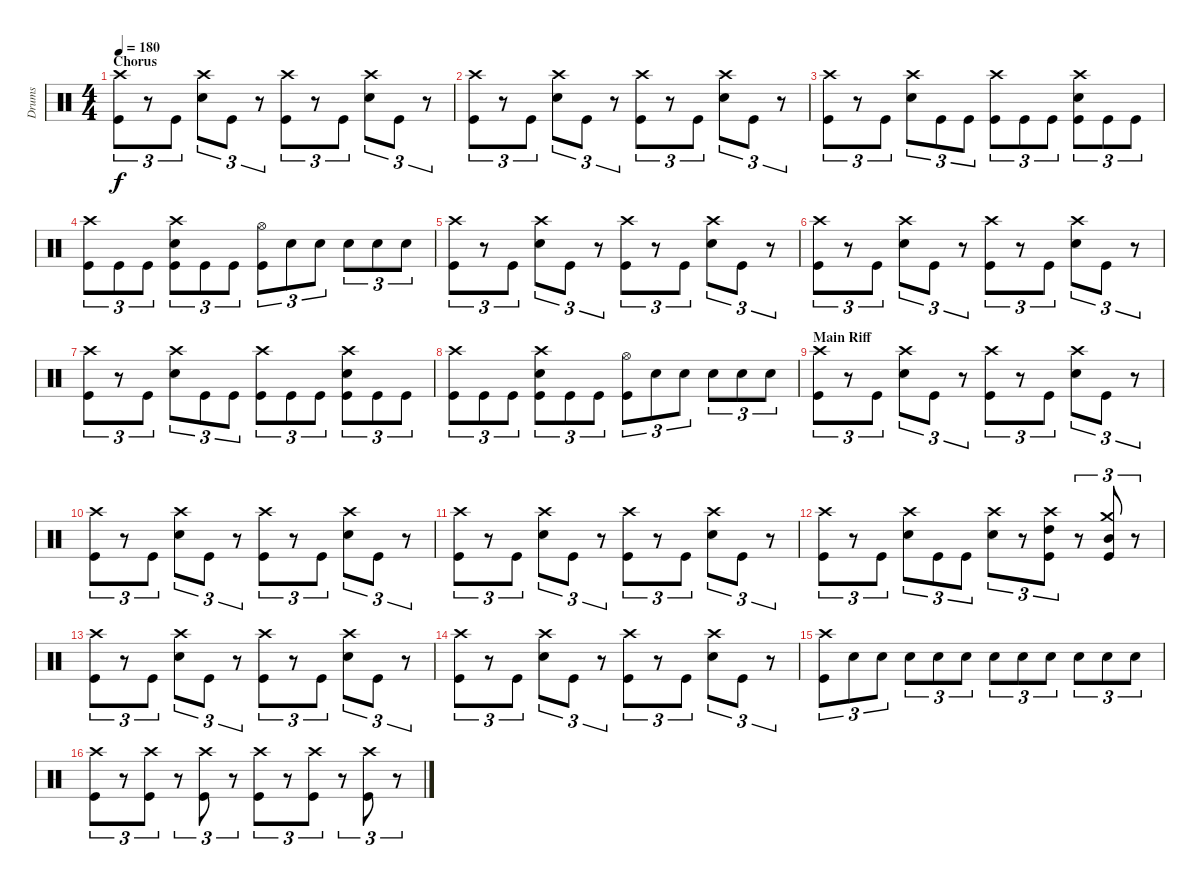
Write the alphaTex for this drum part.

\track ("Drums" "Drums") {instrument percussion}
\staff {score}
\articulation defaults
\ts (4 4)
\section ("" "Chorus")
\tempo 180
\clef neutral
\ks c
("Crash high (hit)" "Kick (hit)").8{tu (3 2) dy f} r.8{tu (3 2)} "Kick (hit)".8{tu (3 2)} ("Crash high (hit)" "Snare (hit) 2").8{tu (3 2)} "Kick (hit)".8{tu (3 2)} r.8{tu (3 2)} ("Crash high (hit)" "Kick (hit)").8{tu (3 2)} r.8{tu (3 2)} "Kick (hit)".8{tu (3 2)} ("Crash high (hit)" "Snare (hit) 2").8{tu (3 2)} "Kick (hit)".8{tu (3 2)} r.8{tu (3 2)} |
("Crash high (hit)" "Kick (hit)").8{tu (3 2)} r.8{tu (3 2)} "Kick (hit)".8{tu (3 2)} ("Crash high (hit)" "Snare (hit) 2").8{tu (3 2)} "Kick (hit)".8{tu (3 2)} r.8{tu (3 2)} ("Crash high (hit)" "Kick (hit)").8{tu (3 2)} r.8{tu (3 2)} "Kick (hit)".8{tu (3 2)} ("Crash high (hit)" "Snare (hit) 2").8{tu (3 2)} "Kick (hit)".8{tu (3 2)} r.8{tu (3 2)} |
("Crash high (hit)" "Kick (hit)").8{tu (3 2)} r.8{tu (3 2)} "Kick (hit)".8{tu (3 2)} ("Crash high (hit)" "Snare (hit) 2").8{tu (3 2)} "Kick (hit)".8{tu (3 2)} "Kick (hit)".8{tu (3 2)} ("Crash high (hit)" "Kick (hit)").8{tu (3 2)} "Kick (hit)".8{tu (3 2)} "Kick (hit)".8{tu (3 2)} ("Crash high (hit)" "Snare (hit) 2" "Kick (hit)").8{tu (3 2)} "Kick (hit)".8{tu (3 2)} "Kick (hit)".8{tu (3 2)} |
("Crash high (hit)" "Kick (hit)").8{tu (3 2)} "Kick (hit)".8{tu (3 2)} "Kick (hit)".8{tu (3 2)} ("Crash high (hit)" "Snare (hit) 2" "Kick (hit)").8{tu (3 2)} "Kick (hit)".8{tu (3 2)} "Kick (hit)".8{tu (3 2)} ("Hi-Hat (open)" "Kick (hit)").8{tu (3 2)} "Snare (hit) 2".8{tu (3 2)} "Snare (hit) 2".8{tu (3 2)} "Snare (hit) 2".8{tu (3 2)} "Snare (hit) 2".8{tu (3 2)} "Snare (hit) 2".8{tu (3 2)} |
("Crash high (hit)" "Kick (hit)").8{tu (3 2)} r.8{tu (3 2)} "Kick (hit)".8{tu (3 2)} ("Crash high (hit)" "Snare (hit) 2").8{tu (3 2)} "Kick (hit)".8{tu (3 2)} r.8{tu (3 2)} ("Crash high (hit)" "Kick (hit)").8{tu (3 2)} r.8{tu (3 2)} "Kick (hit)".8{tu (3 2)} ("Crash high (hit)" "Snare (hit) 2").8{tu (3 2)} "Kick (hit)".8{tu (3 2)} r.8{tu (3 2)} |
("Crash high (hit)" "Kick (hit)").8{tu (3 2)} r.8{tu (3 2)} "Kick (hit)".8{tu (3 2)} ("Crash high (hit)" "Snare (hit) 2").8{tu (3 2)} "Kick (hit)".8{tu (3 2)} r.8{tu (3 2)} ("Crash high (hit)" "Kick (hit)").8{tu (3 2)} r.8{tu (3 2)} "Kick (hit)".8{tu (3 2)} ("Crash high (hit)" "Snare (hit) 2").8{tu (3 2)} "Kick (hit)".8{tu (3 2)} r.8{tu (3 2)} |
("Crash high (hit)" "Kick (hit)").8{tu (3 2)} r.8{tu (3 2)} "Kick (hit)".8{tu (3 2)} ("Crash high (hit)" "Snare (hit) 2").8{tu (3 2)} "Kick (hit)".8{tu (3 2)} "Kick (hit)".8{tu (3 2)} ("Crash high (hit)" "Kick (hit)").8{tu (3 2)} "Kick (hit)".8{tu (3 2)} "Kick (hit)".8{tu (3 2)} ("Crash high (hit)" "Snare (hit) 2" "Kick (hit)").8{tu (3 2)} "Kick (hit)".8{tu (3 2)} "Kick (hit)".8{tu (3 2)} |
("Crash high (hit)" "Kick (hit)").8{tu (3 2)} "Kick (hit)".8{tu (3 2)} "Kick (hit)".8{tu (3 2)} ("Crash high (hit)" "Snare (hit) 2" "Kick (hit)").8{tu (3 2)} "Kick (hit)".8{tu (3 2)} "Kick (hit)".8{tu (3 2)} ("Hi-Hat (open)" "Kick (hit)").8{tu (3 2)} "Snare (hit) 2".8{tu (3 2)} "Snare (hit) 2".8{tu (3 2)} "Snare (hit) 2".8{tu (3 2)} "Snare (hit) 2".8{tu (3 2)} "Snare (hit) 2".8{tu (3 2)} |
\section ("" "Main Riff")
("Crash high (hit)" "Kick (hit)").8{tu (3 2)} r.8{tu (3 2)} "Kick (hit)".8{tu (3 2)} ("Crash high (hit)" "Snare (hit) 2").8{tu (3 2)} "Kick (hit)".8{tu (3 2)} r.8{tu (3 2)} ("Crash high (hit)" "Kick (hit)").8{tu (3 2)} r.8{tu (3 2)} "Kick (hit)".8{tu (3 2)} ("Crash high (hit)" "Snare (hit) 2").8{tu (3 2)} "Kick (hit)".8{tu (3 2)} r.8{tu (3 2)} |
("Crash high (hit)" "Kick (hit)").8{tu (3 2)} r.8{tu (3 2)} "Kick (hit)".8{tu (3 2)} ("Crash high (hit)" "Snare (hit) 2").8{tu (3 2)} "Kick (hit)".8{tu (3 2)} r.8{tu (3 2)} ("Crash high (hit)" "Kick (hit)").8{tu (3 2)} r.8{tu (3 2)} "Kick (hit)".8{tu (3 2)} ("Crash high (hit)" "Snare (hit) 2").8{tu (3 2)} "Kick (hit)".8{tu (3 2)} r.8{tu (3 2)} |
("Crash high (hit)" "Kick (hit)").8{tu (3 2)} r.8{tu (3 2)} "Kick (hit)".8{tu (3 2)} ("Crash high (hit)" "Snare (hit) 2").8{tu (3 2)} "Kick (hit)".8{tu (3 2)} r.8{tu (3 2)} ("Crash high (hit)" "Kick (hit)").8{tu (3 2)} r.8{tu (3 2)} "Kick (hit)".8{tu (3 2)} ("Crash high (hit)" "Snare (hit) 2").8{tu (3 2)} "Kick (hit)".8{tu (3 2)} r.8{tu (3 2)} |
("Crash high (hit)" "Kick (hit)").8{tu (3 2)} r.8{tu (3 2)} "Kick (hit)".8{tu (3 2)} ("Crash high (hit)" "Snare (hit) 2").8{tu (3 2)} "Kick (hit)".8{tu (3 2)} "Kick (hit)".8{tu (3 2)} ("Crash high (hit)" "Snare (hit) 2").8{tu (3 2)} r.8{tu (3 2)} ("Crash high (hit)" "High Tom (hit)" "Kick (hit)").8{tu (3 2)} r.8{tu (3 2)} ("Crash medium (hit)" "Mid Tom (hit)" "Kick (hit)").8{tu (3 2)} r.8{tu (3 2)} |
("Crash high (hit)" "Kick (hit)").8{tu (3 2)} r.8{tu (3 2)} "Kick (hit)".8{tu (3 2)} ("Crash high (hit)" "Snare (hit) 2").8{tu (3 2)} "Kick (hit)".8{tu (3 2)} r.8{tu (3 2)} ("Crash high (hit)" "Kick (hit)").8{tu (3 2)} r.8{tu (3 2)} "Kick (hit)".8{tu (3 2)} ("Crash high (hit)" "Snare (hit) 2").8{tu (3 2)} "Kick (hit)".8{tu (3 2)} r.8{tu (3 2)} |
("Crash high (hit)" "Kick (hit)").8{tu (3 2)} r.8{tu (3 2)} "Kick (hit)".8{tu (3 2)} ("Crash high (hit)" "Snare (hit) 2").8{tu (3 2)} "Kick (hit)".8{tu (3 2)} r.8{tu (3 2)} ("Crash high (hit)" "Kick (hit)").8{tu (3 2)} r.8{tu (3 2)} "Kick (hit)".8{tu (3 2)} ("Crash high (hit)" "Snare (hit) 2").8{tu (3 2)} "Kick (hit)".8{tu (3 2)} r.8{tu (3 2)} |
("Crash high (hit)" "Kick (hit)").8{tu (3 2)} "Snare (hit) 2".8{tu (3 2)} "Snare (hit) 2".8{tu (3 2)} "Snare (hit) 2".8{tu (3 2)} "Snare (hit) 2".8{tu (3 2)} "Snare (hit) 2".8{tu (3 2)} "Snare (hit) 2".8{tu (3 2)} "Snare (hit) 2".8{tu (3 2)} "Snare (hit) 2".8{tu (3 2)} "Snare (hit) 2".8{tu (3 2)} "Snare (hit) 2".8{tu (3 2)} "Snare (hit) 2".8{tu (3 2)} |
("Crash high (hit)" "Kick (hit)").8{tu (3 2)} r.8{tu (3 2)} ("Crash high (hit)" "Kick (hit)").8{tu (3 2)} r.8{tu (3 2)} ("Crash high (hit)" "Kick (hit)").8{tu (3 2)} r.8{tu (3 2)} ("Crash high (hit)" "Kick (hit)").8{tu (3 2)} r.8{tu (3 2)} ("Crash high (hit)" "Kick (hit)").8{tu (3 2)} r.8{tu (3 2)} ("Crash high (hit)" "Kick (hit)").8{tu (3 2)} r.8{tu (3 2)}
